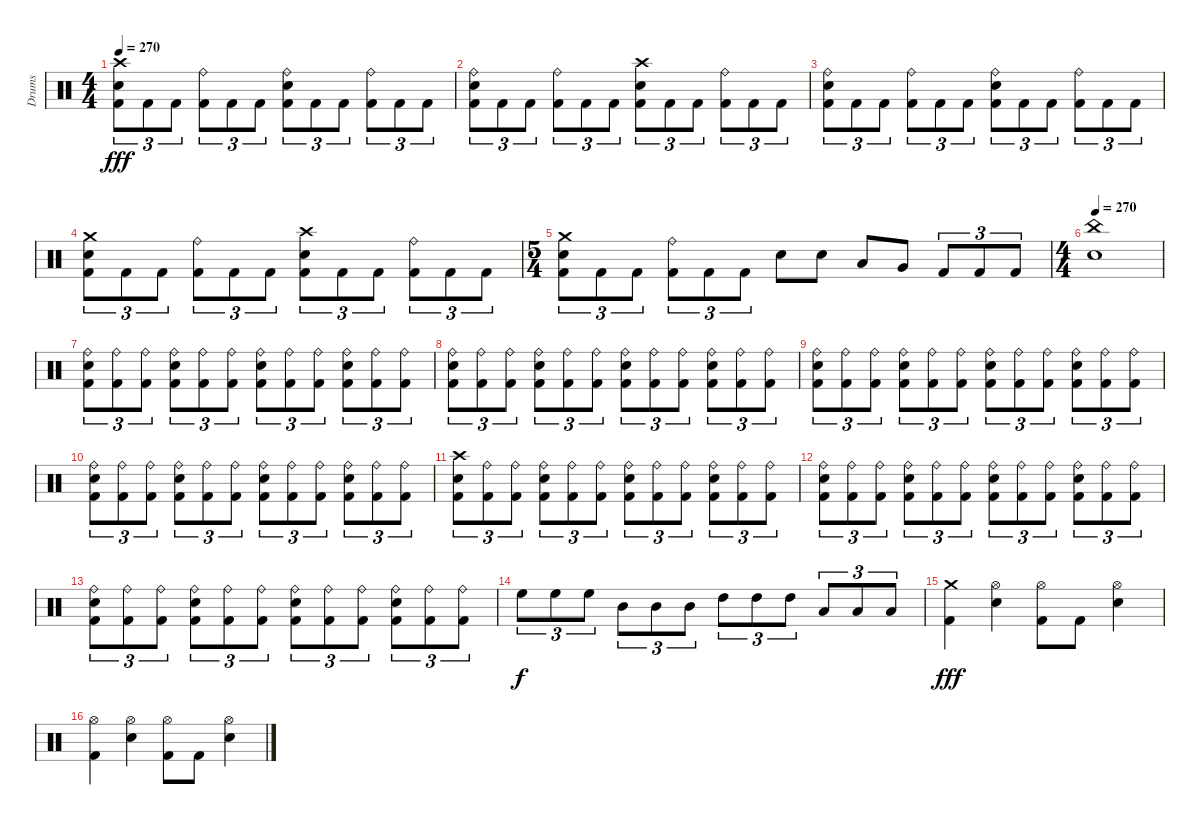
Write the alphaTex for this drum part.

\track ("Drums" "Drums") {instrument percussion}
\staff {score}
\articulation defaults
\ts (4 4)
\tempo 270
\clef neutral
\ks c
("Kick (hit) 2" "Snare (hit) 2" "Crash high (hit)").8{tu (3 2) dy fff} "Kick (hit) 2".8{tu (3 2)} "Kick (hit) 2".8{tu (3 2)} ("Kick (hit) 2" "Ride (bell)").8{tu (3 2)} "Kick (hit) 2".8{tu (3 2)} "Kick (hit) 2".8{tu (3 2)} ("Kick (hit) 2" "Snare (hit) 2" "Ride (bell)").8{tu (3 2)} "Kick (hit) 2".8{tu (3 2)} "Kick (hit) 2".8{tu (3 2)} ("Kick (hit) 2" "Ride (bell)").8{tu (3 2)} "Kick (hit) 2".8{tu (3 2)} "Kick (hit) 2".8{tu (3 2)} |
("Kick (hit) 2" "Snare (hit) 2" "Ride (bell)").8{tu (3 2)} "Kick (hit) 2".8{tu (3 2)} "Kick (hit) 2".8{tu (3 2)} ("Kick (hit) 2" "Ride (bell)").8{tu (3 2)} "Kick (hit) 2".8{tu (3 2)} "Kick (hit) 2".8{tu (3 2)} ("Kick (hit) 2" "Snare (hit) 2" "Crash high (hit)").8{tu (3 2)} "Kick (hit) 2".8{tu (3 2)} "Kick (hit) 2".8{tu (3 2)} ("Kick (hit) 2" "Ride (bell)").8{tu (3 2)} "Kick (hit) 2".8{tu (3 2)} "Kick (hit) 2".8{tu (3 2)} |
("Kick (hit) 2" "Snare (hit) 2" "Ride (bell)").8{tu (3 2)} "Kick (hit) 2".8{tu (3 2)} "Kick (hit) 2".8{tu (3 2)} ("Kick (hit) 2" "Ride (bell)").8{tu (3 2)} "Kick (hit) 2".8{tu (3 2)} "Kick (hit) 2".8{tu (3 2)} ("Kick (hit) 2" "Snare (hit) 2" "Ride (bell)").8{tu (3 2)} "Kick (hit) 2".8{tu (3 2)} "Kick (hit) 2".8{tu (3 2)} ("Kick (hit) 2" "Ride (bell)").8{tu (3 2)} "Kick (hit) 2".8{tu (3 2)} "Kick (hit) 2".8{tu (3 2)} |
("Kick (hit) 2" "Snare (hit) 2" "Crash medium (hit)").8{tu (3 2)} "Kick (hit) 2".8{tu (3 2)} "Kick (hit) 2".8{tu (3 2)} ("Kick (hit) 2" "Ride (bell)").8{tu (3 2)} "Kick (hit) 2".8{tu (3 2)} "Kick (hit) 2".8{tu (3 2)} ("Kick (hit) 2" "Snare (hit) 2" "Crash high (hit)").8{tu (3 2)} "Kick (hit) 2".8{tu (3 2)} "Kick (hit) 2".8{tu (3 2)} ("Kick (hit) 2" "Ride (bell)").8{tu (3 2)} "Kick (hit) 2".8{tu (3 2)} "Kick (hit) 2".8{tu (3 2)} |
\ts (5 4)
("Kick (hit) 2" "Snare (hit) 2" "Crash medium (hit)").8{tu (3 2)} "Kick (hit) 2".8{tu (3 2)} "Kick (hit) 2".8{tu (3 2)} ("Kick (hit) 2" "Ride (bell)").8{tu (3 2)} "Kick (hit) 2".8{tu (3 2)} "Kick (hit) 2".8{tu (3 2)} "Snare (hit) 2".8 "Snare (hit) 2".8 "Low Tom (hit)".8 "Very Low Tom (hit)".8 "Kick (hit) 2".8{tu (3 2)} "Kick (hit) 2".8{tu (3 2)} "Kick (hit) 2".8{tu (3 2)} |
\ts (4 4)
\tempo 270
("Snare (hit) 2" "China (hit)").1 |
("Kick (hit) 2" "Snare (hit) 2" "Ride (bell)").8{tu (3 2)} ("Kick (hit) 2" "Ride (bell)").8{tu (3 2)} ("Kick (hit) 2" "Ride (bell)").8{tu (3 2)} ("Kick (hit) 2" "Snare (hit) 2" "Ride (bell)").8{tu (3 2)} ("Kick (hit) 2" "Ride (bell)").8{tu (3 2)} ("Kick (hit) 2" "Ride (bell)").8{tu (3 2)} ("Kick (hit) 2" "Snare (hit) 2" "Ride (bell)").8{tu (3 2)} ("Kick (hit) 2" "Ride (bell)").8{tu (3 2)} ("Kick (hit) 2" "Ride (bell)").8{tu (3 2)} ("Kick (hit) 2" "Snare (hit) 2" "Ride (bell)").8{tu (3 2)} ("Kick (hit) 2" "Ride (bell)").8{tu (3 2)} ("Kick (hit) 2" "Ride (bell)").8{tu (3 2)} |
("Kick (hit) 2" "Snare (hit) 2" "Ride (bell)").8{tu (3 2)} ("Kick (hit) 2" "Ride (bell)").8{tu (3 2)} ("Kick (hit) 2" "Ride (bell)").8{tu (3 2)} ("Kick (hit) 2" "Snare (hit) 2" "Ride (bell)").8{tu (3 2)} ("Kick (hit) 2" "Ride (bell)").8{tu (3 2)} ("Kick (hit) 2" "Ride (bell)").8{tu (3 2)} ("Kick (hit) 2" "Snare (hit) 2" "Ride (bell)").8{tu (3 2)} ("Kick (hit) 2" "Ride (bell)").8{tu (3 2)} ("Kick (hit) 2" "Ride (bell)").8{tu (3 2)} ("Kick (hit) 2" "Snare (hit) 2" "Ride (bell)").8{tu (3 2)} ("Kick (hit) 2" "Ride (bell)").8{tu (3 2)} ("Kick (hit) 2" "Ride (bell)").8{tu (3 2)} |
("Kick (hit) 2" "Snare (hit) 2" "Ride (bell)").8{tu (3 2)} ("Kick (hit) 2" "Ride (bell)").8{tu (3 2)} ("Kick (hit) 2" "Ride (bell)").8{tu (3 2)} ("Kick (hit) 2" "Snare (hit) 2" "Ride (bell)").8{tu (3 2)} ("Kick (hit) 2" "Ride (bell)").8{tu (3 2)} ("Kick (hit) 2" "Ride (bell)").8{tu (3 2)} ("Kick (hit) 2" "Snare (hit) 2" "Ride (bell)").8{tu (3 2)} ("Kick (hit) 2" "Ride (bell)").8{tu (3 2)} ("Kick (hit) 2" "Ride (bell)").8{tu (3 2)} ("Kick (hit) 2" "Snare (hit) 2" "Ride (bell)").8{tu (3 2)} ("Kick (hit) 2" "Ride (bell)").8{tu (3 2)} ("Kick (hit) 2" "Ride (bell)").8{tu (3 2)} |
("Kick (hit) 2" "Snare (hit) 2" "Ride (bell)").8{tu (3 2)} ("Kick (hit) 2" "Ride (bell)").8{tu (3 2)} ("Kick (hit) 2" "Ride (bell)").8{tu (3 2)} ("Kick (hit) 2" "Snare (hit) 2" "Ride (bell)").8{tu (3 2)} ("Kick (hit) 2" "Ride (bell)").8{tu (3 2)} ("Kick (hit) 2" "Ride (bell)").8{tu (3 2)} ("Kick (hit) 2" "Snare (hit) 2" "Ride (bell)").8{tu (3 2)} ("Kick (hit) 2" "Ride (bell)").8{tu (3 2)} ("Kick (hit) 2" "Ride (bell)").8{tu (3 2)} ("Kick (hit) 2" "Snare (hit) 2" "Ride (bell)").8{tu (3 2)} ("Kick (hit) 2" "Ride (bell)").8{tu (3 2)} ("Kick (hit) 2" "Ride (bell)").8{tu (3 2)} |
("Kick (hit) 2" "Snare (hit) 2" "Crash high (hit)").8{tu (3 2)} ("Kick (hit) 2" "Ride (bell)").8{tu (3 2)} ("Kick (hit) 2" "Ride (bell)").8{tu (3 2)} ("Kick (hit) 2" "Snare (hit) 2" "Ride (bell)").8{tu (3 2)} ("Kick (hit) 2" "Ride (bell)").8{tu (3 2)} ("Kick (hit) 2" "Ride (bell)").8{tu (3 2)} ("Kick (hit) 2" "Snare (hit) 2" "Ride (bell)").8{tu (3 2)} ("Kick (hit) 2" "Ride (bell)").8{tu (3 2)} ("Kick (hit) 2" "Ride (bell)").8{tu (3 2)} ("Kick (hit) 2" "Snare (hit) 2" "Ride (bell)").8{tu (3 2)} ("Kick (hit) 2" "Ride (bell)").8{tu (3 2)} ("Kick (hit) 2" "Ride (bell)").8{tu (3 2)} |
("Kick (hit) 2" "Snare (hit) 2" "Ride (bell)").8{tu (3 2)} ("Kick (hit) 2" "Ride (bell)").8{tu (3 2)} ("Kick (hit) 2" "Ride (bell)").8{tu (3 2)} ("Kick (hit) 2" "Snare (hit) 2" "Ride (bell)").8{tu (3 2)} ("Kick (hit) 2" "Ride (bell)").8{tu (3 2)} ("Kick (hit) 2" "Ride (bell)").8{tu (3 2)} ("Kick (hit) 2" "Snare (hit) 2" "Ride (bell)").8{tu (3 2)} ("Kick (hit) 2" "Ride (bell)").8{tu (3 2)} ("Kick (hit) 2" "Ride (bell)").8{tu (3 2)} ("Kick (hit) 2" "Snare (hit) 2" "Ride (bell)").8{tu (3 2)} ("Kick (hit) 2" "Ride (bell)").8{tu (3 2)} ("Kick (hit) 2" "Ride (bell)").8{tu (3 2)} |
("Kick (hit) 2" "Snare (hit) 2" "Ride (bell)").8{tu (3 2)} ("Kick (hit) 2" "Ride (bell)").8{tu (3 2)} ("Kick (hit) 2" "Ride (bell)").8{tu (3 2)} ("Kick (hit) 2" "Snare (hit) 2" "Ride (bell)").8{tu (3 2)} ("Kick (hit) 2" "Ride (bell)").8{tu (3 2)} ("Kick (hit) 2" "Ride (bell)").8{tu (3 2)} ("Kick (hit) 2" "Snare (hit) 2" "Ride (bell)").8{tu (3 2)} ("Kick (hit) 2" "Ride (bell)").8{tu (3 2)} ("Kick (hit) 2" "Ride (bell)").8{tu (3 2)} ("Kick (hit) 2" "Snare (hit) 2" "Ride (bell)").8{tu (3 2)} ("Kick (hit) 2" "Ride (bell)").8{tu (3 2)} ("Kick (hit) 2" "Ride (bell)").8{tu (3 2)} |
"High Floor Tom (hit)".8{tu (3 2) dy f} "High Floor Tom (hit)".8{tu (3 2)} "High Floor Tom (hit)".8{tu (3 2)} "Mid Tom (hit)".8{tu (3 2)} "Mid Tom (hit)".8{tu (3 2)} "Mid Tom (hit)".8{tu (3 2)} "High Tom (hit)".8{tu (3 2)} "High Tom (hit)".8{tu (3 2)} "High Tom (hit)".8{tu (3 2)} "Low Tom (hit)".8{tu (3 2)} "Low Tom (hit)".8{tu (3 2)} "Low Tom (hit)".8{tu (3 2)} |
("Kick (hit) 2" "Crash medium (hit)").4{dy fff} ("Snare (hit) 2" "Hi-Hat (open)").4 ("Kick (hit) 2" "Hi-Hat (open)").8 "Kick (hit) 2".8 ("Snare (hit) 2" "Hi-Hat (open)").4 |
("Kick (hit) 2" "Hi-Hat (open)").4 ("Snare (hit) 2" "Hi-Hat (open)").4 ("Kick (hit) 2" "Hi-Hat (open)").8 "Kick (hit) 2".8 ("Snare (hit) 2" "Hi-Hat (open)").4
